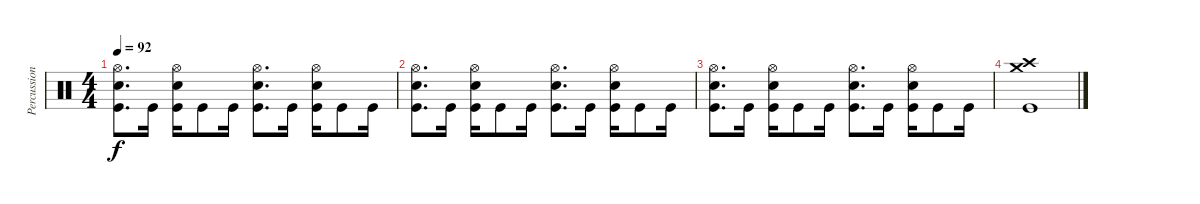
\track ("Percussion" "Percussion") {instrument percussion}
\staff {score}
\articulation defaults
\ts (4 4)
\tempo 92
\clef neutral
\ks c
("Hi-Hat (open)" "Electric Snare (hit)" "Kick (hit)").8{d dy f} "Kick (hit)".16 ("Hi-Hat (open)" "Electric Snare (hit)" "Kick (hit)").16 "Kick (hit)".8 "Kick (hit)".16 ("Hi-Hat (open)" "Electric Snare (hit)" "Kick (hit)").8{d} "Kick (hit)".16 ("Hi-Hat (open)" "Electric Snare (hit)" "Kick (hit)").16 "Kick (hit)".8 "Kick (hit)".16 |
("Hi-Hat (open)" "Electric Snare (hit)" "Kick (hit)").8{d} "Kick (hit)".16 ("Hi-Hat (open)" "Electric Snare (hit)" "Kick (hit)").16 "Kick (hit)".8 "Kick (hit)".16 ("Hi-Hat (open)" "Electric Snare (hit)" "Kick (hit)").8{d} "Kick (hit)".16 ("Hi-Hat (open)" "Electric Snare (hit)" "Kick (hit)").16 "Kick (hit)".8 "Kick (hit)".16 |
("Hi-Hat (open)" "Electric Snare (hit)" "Kick (hit)").8{d} "Kick (hit)".16 ("Hi-Hat (open)" "Electric Snare (hit)" "Kick (hit)").16 "Kick (hit)".8 "Kick (hit)".16 ("Hi-Hat (open)" "Electric Snare (hit)" "Kick (hit)").8{d} "Kick (hit)".16 ("Hi-Hat (open)" "Electric Snare (hit)" "Kick (hit)").16 "Kick (hit)".8 "Kick (hit)".16 |
("Crash high (hit)" "Crash medium (hit)" "Kick (hit)").1
